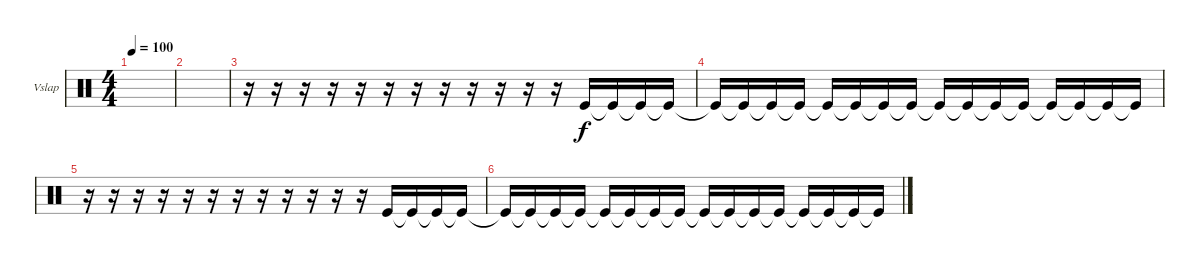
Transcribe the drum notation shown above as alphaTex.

\defaultSystemsLayout 4
\bracketExtendMode groupsimilarinstruments
\firstSystemTrackNameOrientation horizontal
\otherSystemsTrackNameOrientation horizontal
\track ("Vibraslap" "Vslap") {instrument percussion}
\staff {score}
\articulation defaults
\ts (4 4)
\tempo 100
\clef neutral
\ks c
|
|
r.16 r.16 r.16 r.16 r.16 r.16 r.16 r.16 r.16 r.16 r.16 r.16 "Kick (hit)".16 "Kick (hit)"{t}.16 "Kick (hit)"{t}.16 "Kick (hit)"{t}.16 |
"Kick (hit)"{t}.16 "Kick (hit)"{t}.16 "Kick (hit)"{t}.16 "Kick (hit)"{t}.16 "Kick (hit)"{t}.16 "Kick (hit)"{t}.16 "Kick (hit)"{t}.16 "Kick (hit)"{t}.16 "Kick (hit)"{t}.16 "Kick (hit)"{t}.16 "Kick (hit)"{t}.16 "Kick (hit)"{t}.16 "Kick (hit)"{t}.16 "Kick (hit)"{t}.16 "Kick (hit)"{t}.16 "Kick (hit)"{t}.16 |
r.16 r.16 r.16 r.16 r.16 r.16 r.16 r.16 r.16 r.16 r.16 r.16 "Kick (hit)".16 "Kick (hit)"{t}.16 "Kick (hit)"{t}.16 "Kick (hit)"{t}.16 |
"Kick (hit)"{t}.16 "Kick (hit)"{t}.16 "Kick (hit)"{t}.16 "Kick (hit)"{t}.16 "Kick (hit)"{t}.16 "Kick (hit)"{t}.16 "Kick (hit)"{t}.16 "Kick (hit)"{t}.16 "Kick (hit)"{t}.16 "Kick (hit)"{t}.16 "Kick (hit)"{t}.16 "Kick (hit)"{t}.16 "Kick (hit)"{t}.16 "Kick (hit)"{t}.16 "Kick (hit)"{t}.16 "Kick (hit)"{t}.16
